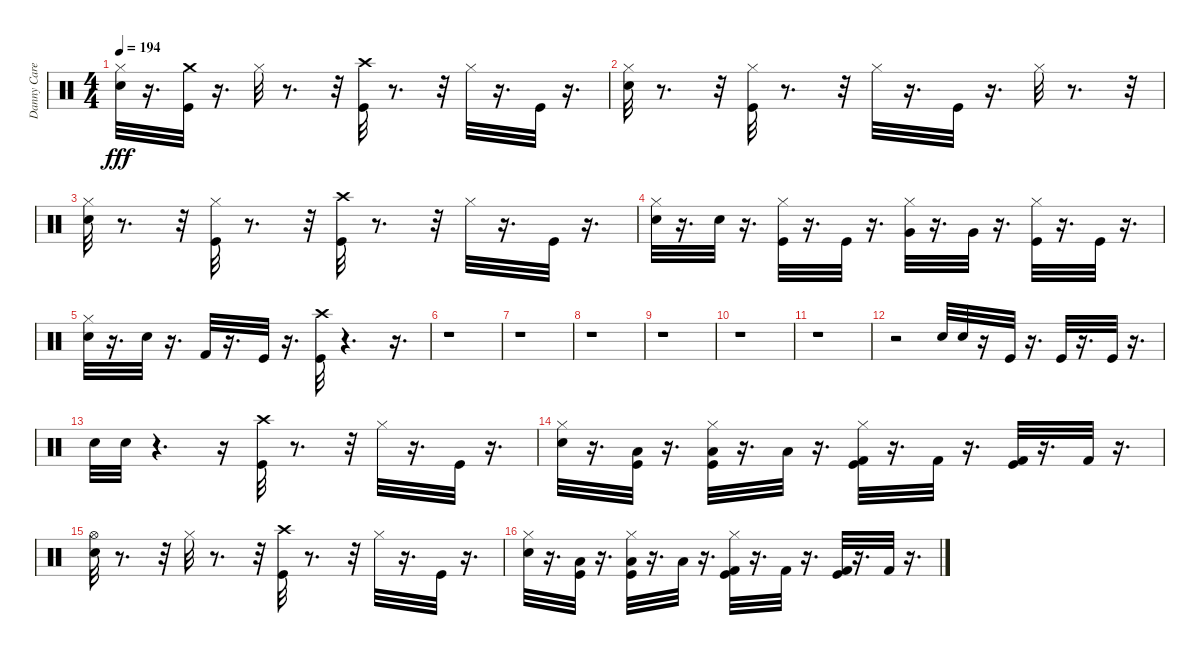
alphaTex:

\track ("Danny Carey" "Danny Care") {instrument percussion}
\staff {score}
\articulation defaults
\ts (4 4)
\tempo 194
\clef neutral
\ks c
("Snare (hit) 2" "Hi-Hat (closed)").32{dy fff} r.16{d} ("Kick (hit)" "Crash medium (hit)").32 r.16{d} "Hi-Hat (closed)".32 r.8{d} r.32 ("Crash high (hit)" "Kick (hit)").32 r.8{d} r.32 "Hi-Hat (closed)".32 r.16{d} "Kick (hit)".32 r.16{d} |
("Hi-Hat (closed)" "Snare (hit) 2").32 r.8{d} r.32 ("Hi-Hat (closed)" "Kick (hit)").32 r.8{d} r.32 "Hi-Hat (closed)".32 r.16{d} "Kick (hit)".32 r.16{d} "Hi-Hat (closed)".32 r.8{d} r.32 |
("Hi-Hat (closed)" "Snare (hit) 2").32 r.8{d} r.32 ("Hi-Hat (closed)" "Kick (hit)").32 r.8{d} r.32 ("Kick (hit)" "Crash high (hit)").32 r.8{d} r.32 "Hi-Hat (closed)".32 r.16{d} "Kick (hit)".32 r.16{d} |
("Snare (hit) 2" "Hi-Hat (closed)").32 r.16{d} "Snare (hit) 2".32 r.16{d} ("Kick (hit)" "Hi-Hat (closed)").32 r.16{d} "Kick (hit)".32 r.16{d} ("Very Low Tom (hit)" "Hi-Hat (closed)").32 r.16{d} "Very Low Tom (hit)".32 r.16{d} ("Hi-Hat (closed)" "Kick (hit)").32 r.16{d} "Kick (hit)".32 r.16{d} |
("Hi-Hat (closed)" "Snare (hit) 2").32 r.16{d} "Snare (hit) 2".32 r.16{d} "Kick (hit) 2".32 r.16{d} "Kick (hit)".32 r.16{d} ("Crash high (hit)" "Kick (hit)").32 r.4{d} r.16{d} |
r.1 |
r.1 |
r.1 |
r.1 |
r.1 |
r.1 |
r.2 "Snare (hit) 2".32 "Snare (hit) 2".32 r.16 "Kick (hit)".32 r.16{d} "Kick (hit)".32 r.16{d} "Kick (hit)".32 r.16{d} |
"Snare (hit) 2".32 "Snare (hit) 2".32 r.4{d} r.16 ("Crash high (hit)" "Kick (hit)").32 r.8{d} r.32 "Hi-Hat (closed)".32 r.16{d} "Kick (hit)".32 r.16{d} |
("Hi-Hat (closed)" "Snare (hit) 2").32 r.16{d} ("Low Floor Tom (hit)" "Kick (hit)").32 r.16{d} ("Low Floor Tom (hit)" "Kick (hit)" "Hi-Hat (closed)").32 r.16{d} "Low Floor Tom (hit)".32 r.16{d} ("Kick (hit) 2" "Kick (hit)" "Hi-Hat (closed)").32 r.16{d} "Kick (hit) 2".32 r.16{d} ("Kick (hit) 2" "Kick (hit)").32 r.16{d} "Kick (hit) 2".32 r.16{d} |
("Hi-Hat (open)" "Snare (hit) 2").32 r.8{d} r.32 "Hi-Hat (closed)".32 r.8{d} r.32 ("Crash high (hit)" "Kick (hit)").32 r.8{d} r.32 "Hi-Hat (closed)".32 r.16{d} "Kick (hit)".32 r.16{d} |
("Hi-Hat (closed)" "Snare (hit) 2").32 r.16{d} ("Low Floor Tom (hit)" "Kick (hit)").32 r.16{d} ("Low Floor Tom (hit)" "Kick (hit)" "Hi-Hat (closed)").32 r.16{d} "Low Floor Tom (hit)".32 r.16{d} ("Kick (hit) 2" "Kick (hit)" "Hi-Hat (closed)").32 r.16{d} "Kick (hit) 2".32 r.16{d} ("Kick (hit) 2" "Kick (hit)").32 r.16{d} "Kick (hit) 2".32 r.16{d}
